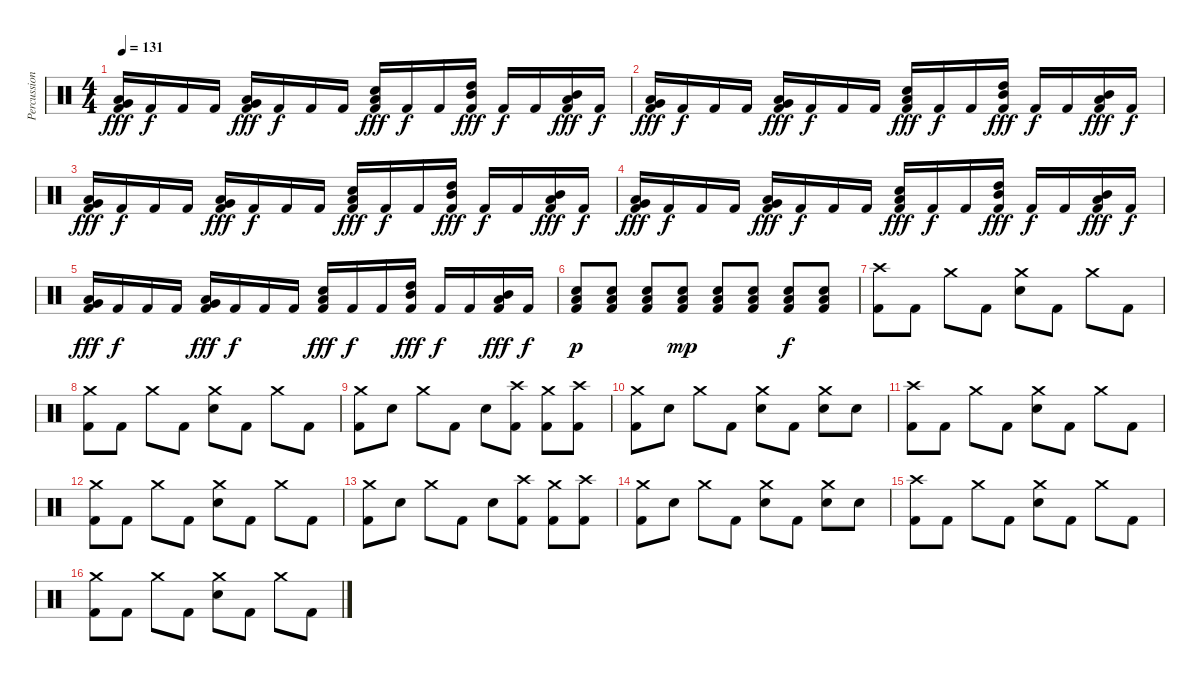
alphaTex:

\track ("Percussion" "Percussion") {instrument percussion}
\staff {score}
\articulation defaults
\ts (4 4)
\tempo 131
\clef neutral
\ks c
("Low Tom (hit)" "Very Low Tom (hit)" "Kick (hit) 2").16{dy fff} "Kick (hit) 2".16{dy f} "Kick (hit) 2".16 "Kick (hit) 2".16 ("Very Low Tom (hit)" "Low Floor Tom (hit)" "Kick (hit) 2").16{dy fff} "Kick (hit) 2".16{dy f} "Kick (hit) 2".16 "Kick (hit) 2".16 ("Low Floor Tom (hit)" "Electric Snare (hit)" "Kick (hit) 2").16{dy fff} "Kick (hit) 2".16{dy f} "Kick (hit) 2".16 ("High Tom (hit)" "Mid Tom (hit)" "Kick (hit) 2").16{dy fff} "Kick (hit) 2".16{dy f} "Kick (hit) 2".16 ("Mid Tom (hit)" "Low Tom (hit)" "Kick (hit) 2").16{dy fff} "Kick (hit) 2".16{dy f} |
("Low Tom (hit)" "Very Low Tom (hit)" "Kick (hit) 2").16{dy fff} "Kick (hit) 2".16{dy f} "Kick (hit) 2".16 "Kick (hit) 2".16 ("Very Low Tom (hit)" "Low Floor Tom (hit)" "Kick (hit) 2").16{dy fff} "Kick (hit) 2".16{dy f} "Kick (hit) 2".16 "Kick (hit) 2".16 ("Low Floor Tom (hit)" "Electric Snare (hit)" "Kick (hit) 2").16{dy fff} "Kick (hit) 2".16{dy f} "Kick (hit) 2".16 ("High Tom (hit)" "Mid Tom (hit)" "Kick (hit) 2").16{dy fff} "Kick (hit) 2".16{dy f} "Kick (hit) 2".16 ("Mid Tom (hit)" "Low Tom (hit)" "Kick (hit) 2").16{dy fff} "Kick (hit) 2".16{dy f} |
("Low Tom (hit)" "Very Low Tom (hit)" "Kick (hit) 2").16{dy fff} "Kick (hit) 2".16{dy f} "Kick (hit) 2".16 "Kick (hit) 2".16 ("Very Low Tom (hit)" "Low Floor Tom (hit)" "Kick (hit) 2").16{dy fff} "Kick (hit) 2".16{dy f} "Kick (hit) 2".16 "Kick (hit) 2".16 ("Low Floor Tom (hit)" "Electric Snare (hit)" "Kick (hit) 2").16{dy fff} "Kick (hit) 2".16{dy f} "Kick (hit) 2".16 ("High Tom (hit)" "Mid Tom (hit)" "Kick (hit) 2").16{dy fff} "Kick (hit) 2".16{dy f} "Kick (hit) 2".16 ("Mid Tom (hit)" "Low Tom (hit)" "Kick (hit) 2").16{dy fff} "Kick (hit) 2".16{dy f} |
("Low Tom (hit)" "Very Low Tom (hit)" "Kick (hit) 2").16{dy fff} "Kick (hit) 2".16{dy f} "Kick (hit) 2".16 "Kick (hit) 2".16 ("Very Low Tom (hit)" "Low Floor Tom (hit)" "Kick (hit) 2").16{dy fff} "Kick (hit) 2".16{dy f} "Kick (hit) 2".16 "Kick (hit) 2".16 ("Low Floor Tom (hit)" "Electric Snare (hit)" "Kick (hit) 2").16{dy fff} "Kick (hit) 2".16{dy f} "Kick (hit) 2".16 ("High Tom (hit)" "Mid Tom (hit)" "Kick (hit) 2").16{dy fff} "Kick (hit) 2".16{dy f} "Kick (hit) 2".16 ("Mid Tom (hit)" "Low Tom (hit)" "Kick (hit) 2").16{dy fff} "Kick (hit) 2".16{dy f} |
("Low Tom (hit)" "Very Low Tom (hit)" "Kick (hit) 2").16{dy fff} "Kick (hit) 2".16{dy f} "Kick (hit) 2".16 "Kick (hit) 2".16 ("Very Low Tom (hit)" "Low Floor Tom (hit)" "Kick (hit) 2").16{dy fff} "Kick (hit) 2".16{dy f} "Kick (hit) 2".16 "Kick (hit) 2".16 ("Low Floor Tom (hit)" "Electric Snare (hit)" "Kick (hit) 2").16{dy fff} "Kick (hit) 2".16{dy f} "Kick (hit) 2".16 ("High Tom (hit)" "Mid Tom (hit)" "Kick (hit) 2").16{dy fff} "Kick (hit) 2".16{dy f} "Kick (hit) 2".16 ("Mid Tom (hit)" "Low Tom (hit)" "Kick (hit) 2").16{dy fff} "Kick (hit) 2".16{dy f} |
("Low Floor Tom (hit)" "Electric Snare (hit)" "Kick (hit) 2").8{dy p} ("Low Floor Tom (hit)" "Electric Snare (hit)" "Kick (hit) 2").8 ("Low Floor Tom (hit)" "Electric Snare (hit)" "Kick (hit) 2").8 ("Low Floor Tom (hit)" "Electric Snare (hit)" "Kick (hit) 2").8{dy mp} ("Low Floor Tom (hit)" "Electric Snare (hit)" "Kick (hit) 2").8 ("Low Floor Tom (hit)" "Electric Snare (hit)" "Kick (hit) 2").8 ("Low Floor Tom (hit)" "Electric Snare (hit)" "Kick (hit) 2").8{dy f} ("Low Floor Tom (hit)" "Electric Snare (hit)" "Kick (hit) 2").8 |
("Crash high (hit)" "Kick (hit) 2").8 "Kick (hit) 2".8 "Crash medium (hit)".8 "Kick (hit) 2".8 ("Crash medium (hit)" "Electric Snare (hit)").8 "Kick (hit) 2".8 "Crash medium (hit)".8 "Kick (hit) 2".8 |
("Crash medium (hit)" "Kick (hit) 2").8 "Kick (hit) 2".8 "Crash medium (hit)".8 "Kick (hit) 2".8 ("Crash medium (hit)" "Electric Snare (hit)").8 "Kick (hit) 2".8 "Crash medium (hit)".8 "Kick (hit) 2".8 |
("Crash medium (hit)" "Kick (hit) 2").8 "Electric Snare (hit)".8 "Crash medium (hit)".8 "Kick (hit) 2".8 "Electric Snare (hit)".8 ("Crash high (hit)" "Kick (hit) 2").8 ("Crash medium (hit)" "Kick (hit) 2").8 ("Crash high (hit)" "Kick (hit) 2").8 |
("Crash medium (hit)" "Kick (hit) 2").8 "Electric Snare (hit)".8 "Crash medium (hit)".8 "Kick (hit) 2".8 ("Crash medium (hit)" "Electric Snare (hit)").8 "Kick (hit) 2".8 ("Crash medium (hit)" "Electric Snare (hit)").8 "Electric Snare (hit)".8 |
("Crash high (hit)" "Kick (hit) 2").8 "Kick (hit) 2".8 "Crash medium (hit)".8 "Kick (hit) 2".8 ("Crash medium (hit)" "Electric Snare (hit)").8 "Kick (hit) 2".8 "Crash medium (hit)".8 "Kick (hit) 2".8 |
("Crash medium (hit)" "Kick (hit) 2").8 "Kick (hit) 2".8 "Crash medium (hit)".8 "Kick (hit) 2".8 ("Crash medium (hit)" "Electric Snare (hit)").8 "Kick (hit) 2".8 "Crash medium (hit)".8 "Kick (hit) 2".8 |
("Crash medium (hit)" "Kick (hit) 2").8 "Electric Snare (hit)".8 "Crash medium (hit)".8 "Kick (hit) 2".8 "Electric Snare (hit)".8 ("Crash high (hit)" "Kick (hit) 2").8 ("Crash medium (hit)" "Kick (hit) 2").8 ("Crash high (hit)" "Kick (hit) 2").8 |
("Crash medium (hit)" "Kick (hit) 2").8 "Electric Snare (hit)".8 "Crash medium (hit)".8 "Kick (hit) 2".8 ("Crash medium (hit)" "Electric Snare (hit)").8 "Kick (hit) 2".8 ("Crash medium (hit)" "Electric Snare (hit)").8 "Electric Snare (hit)".8 |
("Crash high (hit)" "Kick (hit) 2").8 "Kick (hit) 2".8 "Crash medium (hit)".8 "Kick (hit) 2".8 ("Crash medium (hit)" "Electric Snare (hit)").8 "Kick (hit) 2".8 "Crash medium (hit)".8 "Kick (hit) 2".8 |
("Crash medium (hit)" "Kick (hit) 2").8 "Kick (hit) 2".8 "Crash medium (hit)".8 "Kick (hit) 2".8 ("Crash medium (hit)" "Electric Snare (hit)").8 "Kick (hit) 2".8 "Crash medium (hit)".8 "Kick (hit) 2".8
